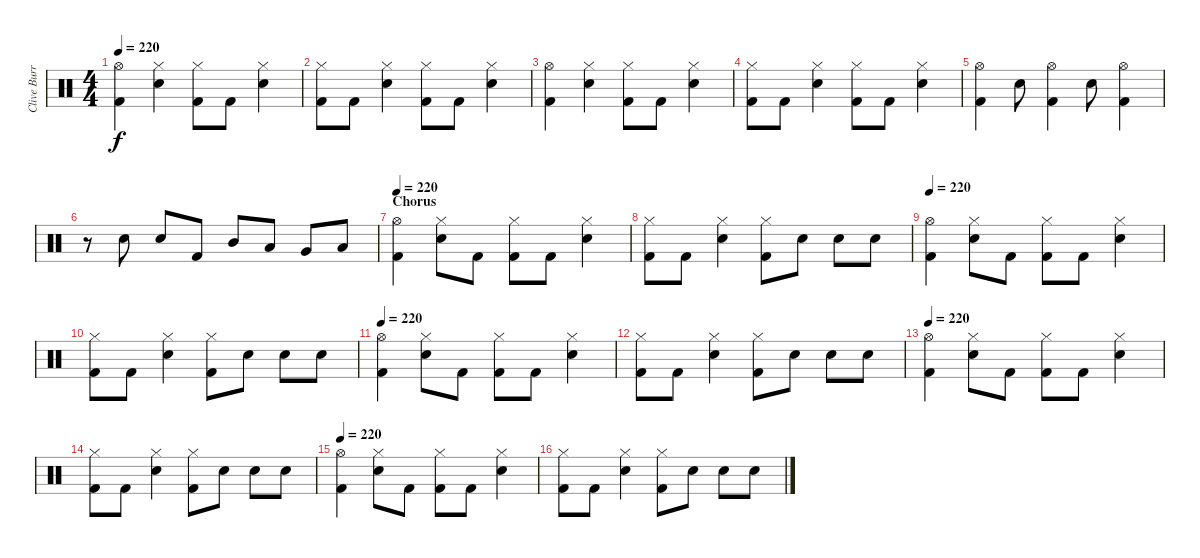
\track ("Clive Burr (Drums)" "Clive Burr") {instrument percussion}
\staff {score}
\articulation defaults
\ts (4 4)
\tempo 220
\clef neutral
\ks c
("Hi-Hat (open)" "Kick (hit) 2").4{dy f} ("Electric Snare (hit)" "Hi-Hat (closed)").4 ("Hi-Hat (closed)" "Kick (hit) 2").8 "Kick (hit) 2".8 ("Electric Snare (hit)" "Hi-Hat (closed)").4 |
("Hi-Hat (closed)" "Kick (hit) 2").8 "Kick (hit) 2".8 ("Electric Snare (hit)" "Hi-Hat (closed)").4 ("Hi-Hat (closed)" "Kick (hit) 2").8 "Kick (hit) 2".8 ("Electric Snare (hit)" "Hi-Hat (closed)").4 |
("Hi-Hat (open)" "Kick (hit) 2").4 ("Electric Snare (hit)" "Hi-Hat (closed)").4 ("Hi-Hat (closed)" "Kick (hit) 2").8 "Kick (hit) 2".8 ("Electric Snare (hit)" "Hi-Hat (closed)").4 |
("Hi-Hat (closed)" "Kick (hit) 2").8 "Kick (hit) 2".8 ("Electric Snare (hit)" "Hi-Hat (closed)").4 ("Hi-Hat (closed)" "Kick (hit) 2").8 "Kick (hit) 2".8 ("Electric Snare (hit)" "Hi-Hat (closed)").4 |
("Hi-Hat (open)" "Kick (hit) 2").4 "Electric Snare (hit)".8 ("Hi-Hat (open)" "Kick (hit) 2").4 "Electric Snare (hit)".8 ("Hi-Hat (open)" "Kick (hit) 2").4 |
r.8 "Electric Snare (hit)".8 "Electric Snare (hit)".8 "Kick (hit) 2".8 "Mid Tom (hit)".8 "Low Tom (hit)".8 "Very Low Tom (hit)".8 "Low Tom (hit)".8 |
\section ("" "Chorus")
\tempo 220
("Hi-Hat (open)" "Kick (hit) 2").4 ("Electric Snare (hit)" "Hi-Hat (closed)").8 "Kick (hit) 2".8 ("Hi-Hat (closed)" "Kick (hit) 2").8 "Kick (hit) 2".8 ("Electric Snare (hit)" "Hi-Hat (closed)").4 |
("Hi-Hat (closed)" "Kick (hit) 2").8 "Kick (hit) 2".8 ("Electric Snare (hit)" "Hi-Hat (closed)").4 ("Hi-Hat (closed)" "Kick (hit) 2").8 "Electric Snare (hit)".8 "Electric Snare (hit)".8 "Electric Snare (hit)".8 |
\tempo 220
("Hi-Hat (open)" "Kick (hit) 2").4 ("Electric Snare (hit)" "Hi-Hat (closed)").8 "Kick (hit) 2".8 ("Hi-Hat (closed)" "Kick (hit) 2").8 "Kick (hit) 2".8 ("Electric Snare (hit)" "Hi-Hat (closed)").4 |
("Hi-Hat (closed)" "Kick (hit) 2").8 "Kick (hit) 2".8 ("Electric Snare (hit)" "Hi-Hat (closed)").4 ("Hi-Hat (closed)" "Kick (hit) 2").8 "Electric Snare (hit)".8 "Electric Snare (hit)".8 "Electric Snare (hit)".8 |
\tempo 220
("Hi-Hat (open)" "Kick (hit) 2").4 ("Electric Snare (hit)" "Hi-Hat (closed)").8 "Kick (hit) 2".8 ("Hi-Hat (closed)" "Kick (hit) 2").8 "Kick (hit) 2".8 ("Electric Snare (hit)" "Hi-Hat (closed)").4 |
("Hi-Hat (closed)" "Kick (hit) 2").8 "Kick (hit) 2".8 ("Electric Snare (hit)" "Hi-Hat (closed)").4 ("Hi-Hat (closed)" "Kick (hit) 2").8 "Electric Snare (hit)".8 "Electric Snare (hit)".8 "Electric Snare (hit)".8 |
\tempo 220
("Hi-Hat (open)" "Kick (hit) 2").4 ("Electric Snare (hit)" "Hi-Hat (closed)").8 "Kick (hit) 2".8 ("Hi-Hat (closed)" "Kick (hit) 2").8 "Kick (hit) 2".8 ("Electric Snare (hit)" "Hi-Hat (closed)").4 |
("Hi-Hat (closed)" "Kick (hit) 2").8 "Kick (hit) 2".8 ("Electric Snare (hit)" "Hi-Hat (closed)").4 ("Hi-Hat (closed)" "Kick (hit) 2").8 "Electric Snare (hit)".8 "Electric Snare (hit)".8 "Electric Snare (hit)".8 |
\tempo 220
("Hi-Hat (open)" "Kick (hit) 2").4 ("Electric Snare (hit)" "Hi-Hat (closed)").8 "Kick (hit) 2".8 ("Hi-Hat (closed)" "Kick (hit) 2").8 "Kick (hit) 2".8 ("Electric Snare (hit)" "Hi-Hat (closed)").4 |
("Hi-Hat (closed)" "Kick (hit) 2").8 "Kick (hit) 2".8 ("Electric Snare (hit)" "Hi-Hat (closed)").4 ("Hi-Hat (closed)" "Kick (hit) 2").8 "Electric Snare (hit)".8 "Electric Snare (hit)".8 "Electric Snare (hit)".8
